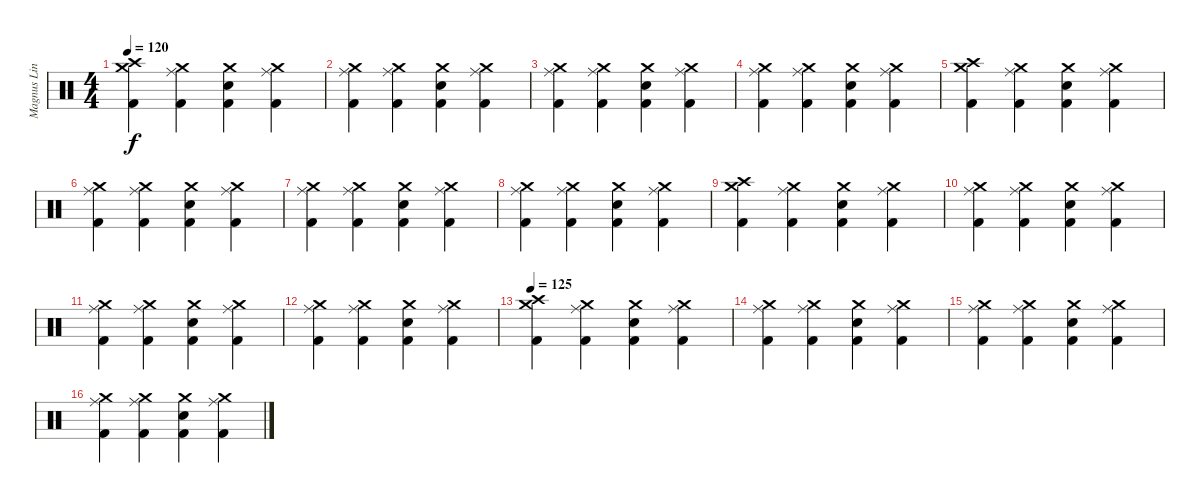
\track ("Magnus Lindberg" "Magnus Lin") {instrument percussion}
\staff {score}
\articulation defaults
\ts (4 4)
\tempo 120
\clef neutral
\ks c
("Crash medium (hit)" "Crash high (hit)" "Kick (hit) 2").4{dy f} ("Crash medium (hit)" "Ride (middle)" "Kick (hit) 2").4 ("Crash medium (hit)" "Snare (hit) 2" "Kick (hit) 2").4 ("Crash medium (hit)" "Ride (middle)" "Kick (hit) 2").4 |
("Crash medium (hit)" "Ride (middle)" "Kick (hit) 2").4 ("Crash medium (hit)" "Ride (middle)" "Kick (hit) 2").4 ("Crash medium (hit)" "Snare (hit) 2" "Kick (hit) 2").4 ("Crash medium (hit)" "Ride (middle)" "Kick (hit) 2").4 |
("Crash medium (hit)" "Ride (middle)" "Kick (hit) 2").4 ("Crash medium (hit)" "Ride (middle)" "Kick (hit) 2").4 ("Crash medium (hit)" "Snare (hit) 2" "Kick (hit) 2").4 ("Crash medium (hit)" "Ride (middle)" "Kick (hit) 2").4 |
("Crash medium (hit)" "Ride (middle)" "Kick (hit) 2").4 ("Crash medium (hit)" "Ride (middle)" "Kick (hit) 2").4 ("Crash medium (hit)" "Snare (hit) 2" "Kick (hit) 2").4 ("Crash medium (hit)" "Ride (middle)" "Kick (hit) 2").4 |
("Crash medium (hit)" "Crash high (hit)" "Kick (hit) 2").4 ("Crash medium (hit)" "Ride (middle)" "Kick (hit) 2").4 ("Crash medium (hit)" "Snare (hit) 2" "Kick (hit) 2").4 ("Crash medium (hit)" "Ride (middle)" "Kick (hit) 2").4 |
("Crash medium (hit)" "Ride (middle)" "Kick (hit) 2").4 ("Crash medium (hit)" "Ride (middle)" "Kick (hit) 2").4 ("Crash medium (hit)" "Snare (hit) 2" "Kick (hit) 2").4 ("Crash medium (hit)" "Ride (middle)" "Kick (hit) 2").4 |
("Crash medium (hit)" "Ride (middle)" "Kick (hit) 2").4 ("Crash medium (hit)" "Ride (middle)" "Kick (hit) 2").4 ("Crash medium (hit)" "Snare (hit) 2" "Kick (hit) 2").4 ("Crash medium (hit)" "Ride (middle)" "Kick (hit) 2").4 |
("Crash medium (hit)" "Ride (middle)" "Kick (hit) 2").4 ("Crash medium (hit)" "Ride (middle)" "Kick (hit) 2").4 ("Crash medium (hit)" "Snare (hit) 2" "Kick (hit) 2").4 ("Crash medium (hit)" "Ride (middle)" "Kick (hit) 2").4 |
("Crash medium (hit)" "Crash high (hit)" "Kick (hit) 2").4 ("Crash medium (hit)" "Ride (middle)" "Kick (hit) 2").4 ("Crash medium (hit)" "Snare (hit) 2" "Kick (hit) 2").4 ("Crash medium (hit)" "Ride (middle)" "Kick (hit) 2").4 |
("Crash medium (hit)" "Ride (middle)" "Kick (hit) 2").4 ("Crash medium (hit)" "Ride (middle)" "Kick (hit) 2").4 ("Crash medium (hit)" "Snare (hit) 2" "Kick (hit) 2").4 ("Crash medium (hit)" "Ride (middle)" "Kick (hit) 2").4 |
("Crash medium (hit)" "Ride (middle)" "Kick (hit) 2").4 ("Crash medium (hit)" "Ride (middle)" "Kick (hit) 2").4 ("Crash medium (hit)" "Snare (hit) 2" "Kick (hit) 2").4 ("Crash medium (hit)" "Ride (middle)" "Kick (hit) 2").4 |
("Crash medium (hit)" "Ride (middle)" "Kick (hit) 2").4 ("Crash medium (hit)" "Ride (middle)" "Kick (hit) 2").4 ("Crash medium (hit)" "Snare (hit) 2" "Kick (hit) 2").4 ("Crash medium (hit)" "Ride (middle)" "Kick (hit) 2").4 |
\tempo 125
("Crash medium (hit)" "Crash high (hit)" "Kick (hit) 2").4 ("Crash medium (hit)" "Ride (middle)" "Kick (hit) 2").4 ("Crash medium (hit)" "Snare (hit) 2" "Kick (hit) 2").4 ("Crash medium (hit)" "Ride (middle)" "Kick (hit) 2").4 |
("Crash medium (hit)" "Ride (middle)" "Kick (hit) 2").4 ("Crash medium (hit)" "Ride (middle)" "Kick (hit) 2").4 ("Crash medium (hit)" "Snare (hit) 2" "Kick (hit) 2").4 ("Crash medium (hit)" "Ride (middle)" "Kick (hit) 2").4 |
("Crash medium (hit)" "Ride (middle)" "Kick (hit) 2").4 ("Crash medium (hit)" "Ride (middle)" "Kick (hit) 2").4 ("Crash medium (hit)" "Snare (hit) 2" "Kick (hit) 2").4 ("Crash medium (hit)" "Ride (middle)" "Kick (hit) 2").4 |
("Crash medium (hit)" "Ride (middle)" "Kick (hit) 2").4 ("Crash medium (hit)" "Ride (middle)" "Kick (hit) 2").4 ("Crash medium (hit)" "Snare (hit) 2" "Kick (hit) 2").4 ("Crash medium (hit)" "Ride (middle)" "Kick (hit) 2").4
